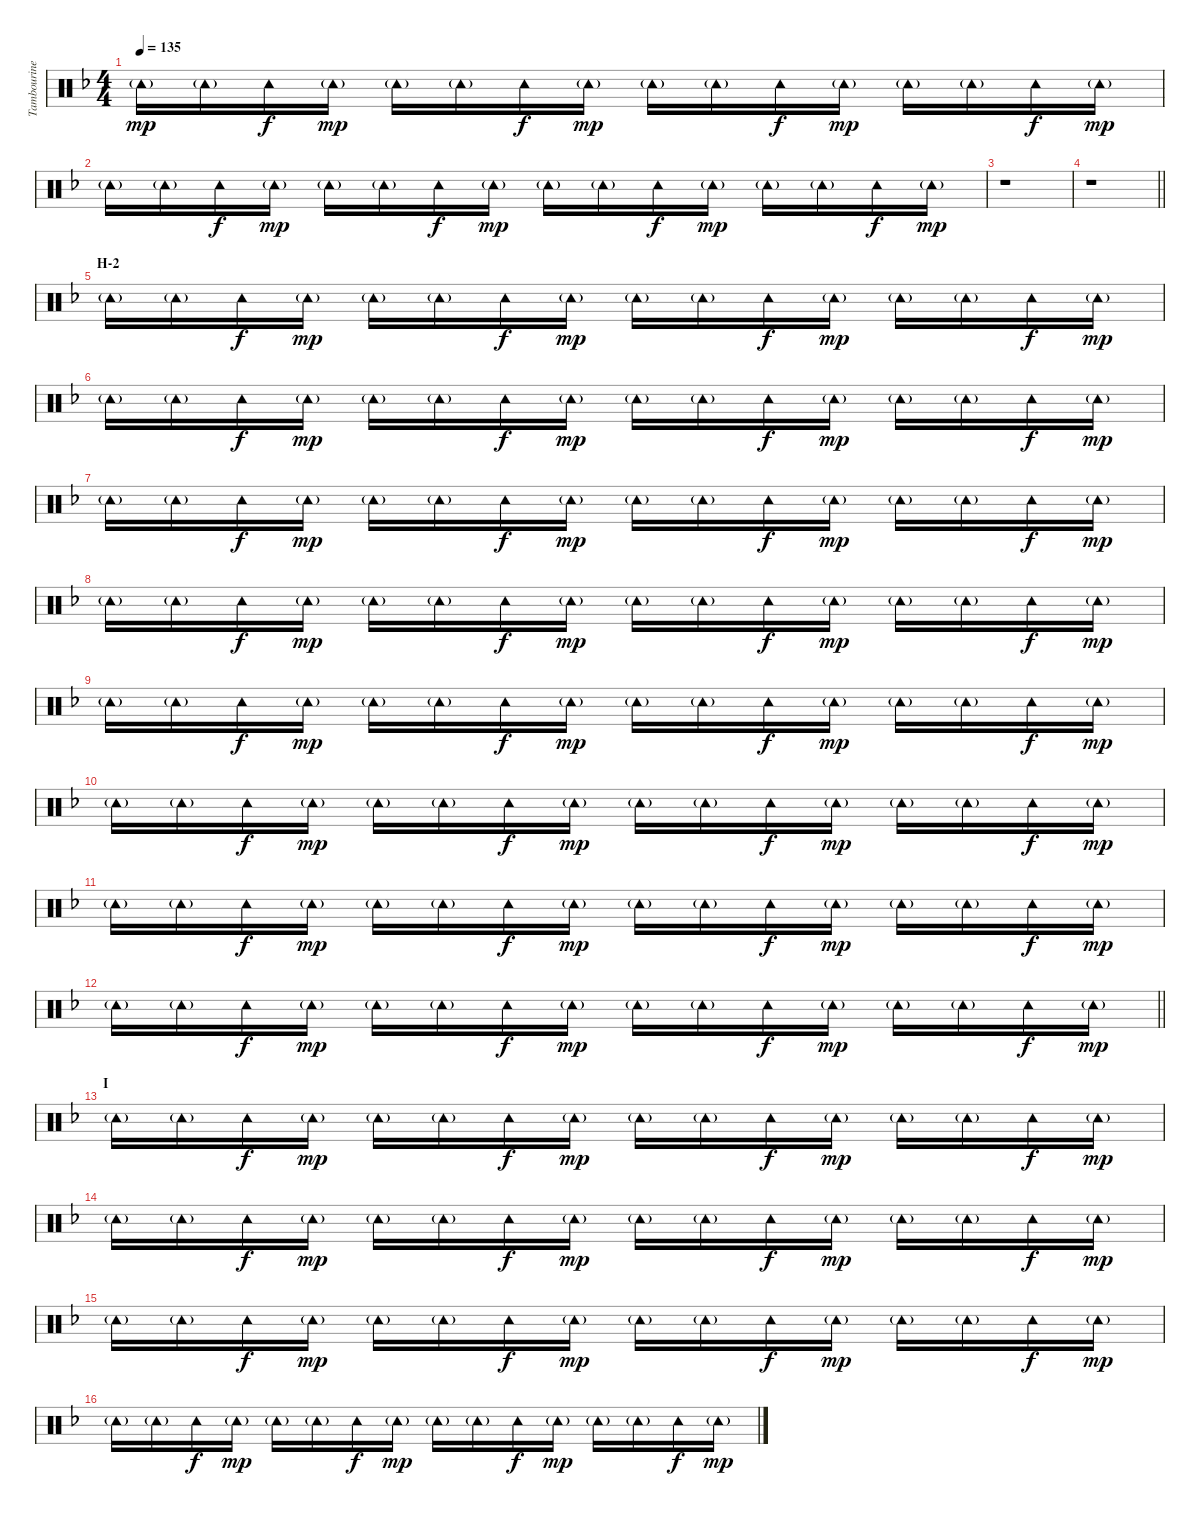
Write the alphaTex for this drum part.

\track ("Tambourine" "Tambourine") {instrument percussion}
\staff {score}
\articulation defaults
\ts (4 4)
\tempo 135
\clef neutral
\ks f "Tambourine (hit)"{g}.16{dy mp} "Tambourine (hit)"{g}.16 "Tambourine (hit)".16{dy f} "Tambourine (hit)"{g}.16{dy mp} "Tambourine (hit)"{g}.16 "Tambourine (hit)"{g}.16 "Tambourine (hit)".16{dy f} "Tambourine (hit)"{g}.16{dy mp} "Tambourine (hit)"{g}.16 "Tambourine (hit)"{g}.16 "Tambourine (hit)".16{dy f} "Tambourine (hit)"{g}.16{dy mp} "Tambourine (hit)"{g}.16 "Tambourine (hit)"{g}.16 "Tambourine (hit)".16{dy f} "Tambourine (hit)"{g}.16{dy mp}
|
"Tambourine (hit)"{g}.16 "Tambourine (hit)"{g}.16 "Tambourine (hit)".16{dy f} "Tambourine (hit)"{g}.16{dy mp} "Tambourine (hit)"{g}.16 "Tambourine (hit)"{g}.16 "Tambourine (hit)".16{dy f} "Tambourine (hit)"{g}.16{dy mp} "Tambourine (hit)"{g}.16 "Tambourine (hit)"{g}.16 "Tambourine (hit)".16{dy f} "Tambourine (hit)"{g}.16{dy mp} "Tambourine (hit)"{g}.16 "Tambourine (hit)"{g}.16 "Tambourine (hit)".16{dy f} "Tambourine (hit)"{g}.16{dy mp} |
r.1 |
\barLineRight lightlight
r.1 |
\section ("" "H-2")
"Tambourine (hit)"{g}.16 "Tambourine (hit)"{g}.16 "Tambourine (hit)".16{dy f} "Tambourine (hit)"{g}.16{dy mp} "Tambourine (hit)"{g}.16 "Tambourine (hit)"{g}.16 "Tambourine (hit)".16{dy f} "Tambourine (hit)"{g}.16{dy mp} "Tambourine (hit)"{g}.16 "Tambourine (hit)"{g}.16 "Tambourine (hit)".16{dy f} "Tambourine (hit)"{g}.16{dy mp} "Tambourine (hit)"{g}.16 "Tambourine (hit)"{g}.16 "Tambourine (hit)".16{dy f} "Tambourine (hit)"{g}.16{dy mp} |
"Tambourine (hit)"{g}.16 "Tambourine (hit)"{g}.16 "Tambourine (hit)".16{dy f} "Tambourine (hit)"{g}.16{dy mp} "Tambourine (hit)"{g}.16 "Tambourine (hit)"{g}.16 "Tambourine (hit)".16{dy f} "Tambourine (hit)"{g}.16{dy mp} "Tambourine (hit)"{g}.16 "Tambourine (hit)"{g}.16 "Tambourine (hit)".16{dy f} "Tambourine (hit)"{g}.16{dy mp} "Tambourine (hit)"{g}.16 "Tambourine (hit)"{g}.16 "Tambourine (hit)".16{dy f} "Tambourine (hit)"{g}.16{dy mp} |
"Tambourine (hit)"{g}.16 "Tambourine (hit)"{g}.16 "Tambourine (hit)".16{dy f} "Tambourine (hit)"{g}.16{dy mp} "Tambourine (hit)"{g}.16 "Tambourine (hit)"{g}.16 "Tambourine (hit)".16{dy f} "Tambourine (hit)"{g}.16{dy mp} "Tambourine (hit)"{g}.16 "Tambourine (hit)"{g}.16 "Tambourine (hit)".16{dy f} "Tambourine (hit)"{g}.16{dy mp} "Tambourine (hit)"{g}.16 "Tambourine (hit)"{g}.16 "Tambourine (hit)".16{dy f} "Tambourine (hit)"{g}.16{dy mp} |
"Tambourine (hit)"{g}.16 "Tambourine (hit)"{g}.16 "Tambourine (hit)".16{dy f} "Tambourine (hit)"{g}.16{dy mp} "Tambourine (hit)"{g}.16 "Tambourine (hit)"{g}.16 "Tambourine (hit)".16{dy f} "Tambourine (hit)"{g}.16{dy mp} "Tambourine (hit)"{g}.16 "Tambourine (hit)"{g}.16 "Tambourine (hit)".16{dy f} "Tambourine (hit)"{g}.16{dy mp} "Tambourine (hit)"{g}.16 "Tambourine (hit)"{g}.16 "Tambourine (hit)".16{dy f} "Tambourine (hit)"{g}.16{dy mp} |
"Tambourine (hit)"{g}.16 "Tambourine (hit)"{g}.16 "Tambourine (hit)".16{dy f} "Tambourine (hit)"{g}.16{dy mp} "Tambourine (hit)"{g}.16 "Tambourine (hit)"{g}.16 "Tambourine (hit)".16{dy f} "Tambourine (hit)"{g}.16{dy mp} "Tambourine (hit)"{g}.16 "Tambourine (hit)"{g}.16 "Tambourine (hit)".16{dy f} "Tambourine (hit)"{g}.16{dy mp} "Tambourine (hit)"{g}.16 "Tambourine (hit)"{g}.16 "Tambourine (hit)".16{dy f} "Tambourine (hit)"{g}.16{dy mp} |
"Tambourine (hit)"{g}.16 "Tambourine (hit)"{g}.16 "Tambourine (hit)".16{dy f} "Tambourine (hit)"{g}.16{dy mp} "Tambourine (hit)"{g}.16 "Tambourine (hit)"{g}.16 "Tambourine (hit)".16{dy f} "Tambourine (hit)"{g}.16{dy mp} "Tambourine (hit)"{g}.16 "Tambourine (hit)"{g}.16 "Tambourine (hit)".16{dy f} "Tambourine (hit)"{g}.16{dy mp} "Tambourine (hit)"{g}.16 "Tambourine (hit)"{g}.16 "Tambourine (hit)".16{dy f} "Tambourine (hit)"{g}.16{dy mp} |
"Tambourine (hit)"{g}.16 "Tambourine (hit)"{g}.16 "Tambourine (hit)".16{dy f} "Tambourine (hit)"{g}.16{dy mp} "Tambourine (hit)"{g}.16 "Tambourine (hit)"{g}.16 "Tambourine (hit)".16{dy f} "Tambourine (hit)"{g}.16{dy mp} "Tambourine (hit)"{g}.16 "Tambourine (hit)"{g}.16 "Tambourine (hit)".16{dy f} "Tambourine (hit)"{g}.16{dy mp} "Tambourine (hit)"{g}.16 "Tambourine (hit)"{g}.16 "Tambourine (hit)".16{dy f} "Tambourine (hit)"{g}.16{dy mp} |
\barLineRight lightlight "Tambourine (hit)"{g}.16 "Tambourine (hit)"{g}.16 "Tambourine (hit)".16{dy f} "Tambourine (hit)"{g}.16{dy mp} "Tambourine (hit)"{g}.16 "Tambourine (hit)"{g}.16 "Tambourine (hit)".16{dy f} "Tambourine (hit)"{g}.16{dy mp} "Tambourine (hit)"{g}.16 "Tambourine (hit)"{g}.16 "Tambourine (hit)".16{dy f} "Tambourine (hit)"{g}.16{dy mp} "Tambourine (hit)"{g}.16 "Tambourine (hit)"{g}.16 "Tambourine (hit)".16{dy f} "Tambourine (hit)"{g}.16{dy mp}
|
\section ("" "I")
"Tambourine (hit)"{g}.16 "Tambourine (hit)"{g}.16 "Tambourine (hit)".16{dy f} "Tambourine (hit)"{g}.16{dy mp} "Tambourine (hit)"{g}.16 "Tambourine (hit)"{g}.16 "Tambourine (hit)".16{dy f} "Tambourine (hit)"{g}.16{dy mp} "Tambourine (hit)"{g}.16 "Tambourine (hit)"{g}.16 "Tambourine (hit)".16{dy f} "Tambourine (hit)"{g}.16{dy mp} "Tambourine (hit)"{g}.16 "Tambourine (hit)"{g}.16 "Tambourine (hit)".16{dy f} "Tambourine (hit)"{g}.16{dy mp} |
"Tambourine (hit)"{g}.16 "Tambourine (hit)"{g}.16 "Tambourine (hit)".16{dy f} "Tambourine (hit)"{g}.16{dy mp} "Tambourine (hit)"{g}.16 "Tambourine (hit)"{g}.16 "Tambourine (hit)".16{dy f} "Tambourine (hit)"{g}.16{dy mp} "Tambourine (hit)"{g}.16 "Tambourine (hit)"{g}.16 "Tambourine (hit)".16{dy f} "Tambourine (hit)"{g}.16{dy mp} "Tambourine (hit)"{g}.16 "Tambourine (hit)"{g}.16 "Tambourine (hit)".16{dy f} "Tambourine (hit)"{g}.16{dy mp} |
"Tambourine (hit)"{g}.16 "Tambourine (hit)"{g}.16 "Tambourine (hit)".16{dy f} "Tambourine (hit)"{g}.16{dy mp} "Tambourine (hit)"{g}.16 "Tambourine (hit)"{g}.16 "Tambourine (hit)".16{dy f} "Tambourine (hit)"{g}.16{dy mp} "Tambourine (hit)"{g}.16 "Tambourine (hit)"{g}.16 "Tambourine (hit)".16{dy f} "Tambourine (hit)"{g}.16{dy mp} "Tambourine (hit)"{g}.16 "Tambourine (hit)"{g}.16 "Tambourine (hit)".16{dy f} "Tambourine (hit)"{g}.16{dy mp} |
"Tambourine (hit)"{g}.16 "Tambourine (hit)"{g}.16 "Tambourine (hit)".16{dy f} "Tambourine (hit)"{g}.16{dy mp} "Tambourine (hit)"{g}.16 "Tambourine (hit)"{g}.16 "Tambourine (hit)".16{dy f} "Tambourine (hit)"{g}.16{dy mp} "Tambourine (hit)"{g}.16 "Tambourine (hit)"{g}.16 "Tambourine (hit)".16{dy f} "Tambourine (hit)"{g}.16{dy mp} "Tambourine (hit)"{g}.16 "Tambourine (hit)"{g}.16 "Tambourine (hit)".16{dy f} "Tambourine (hit)"{g}.16{dy mp}
